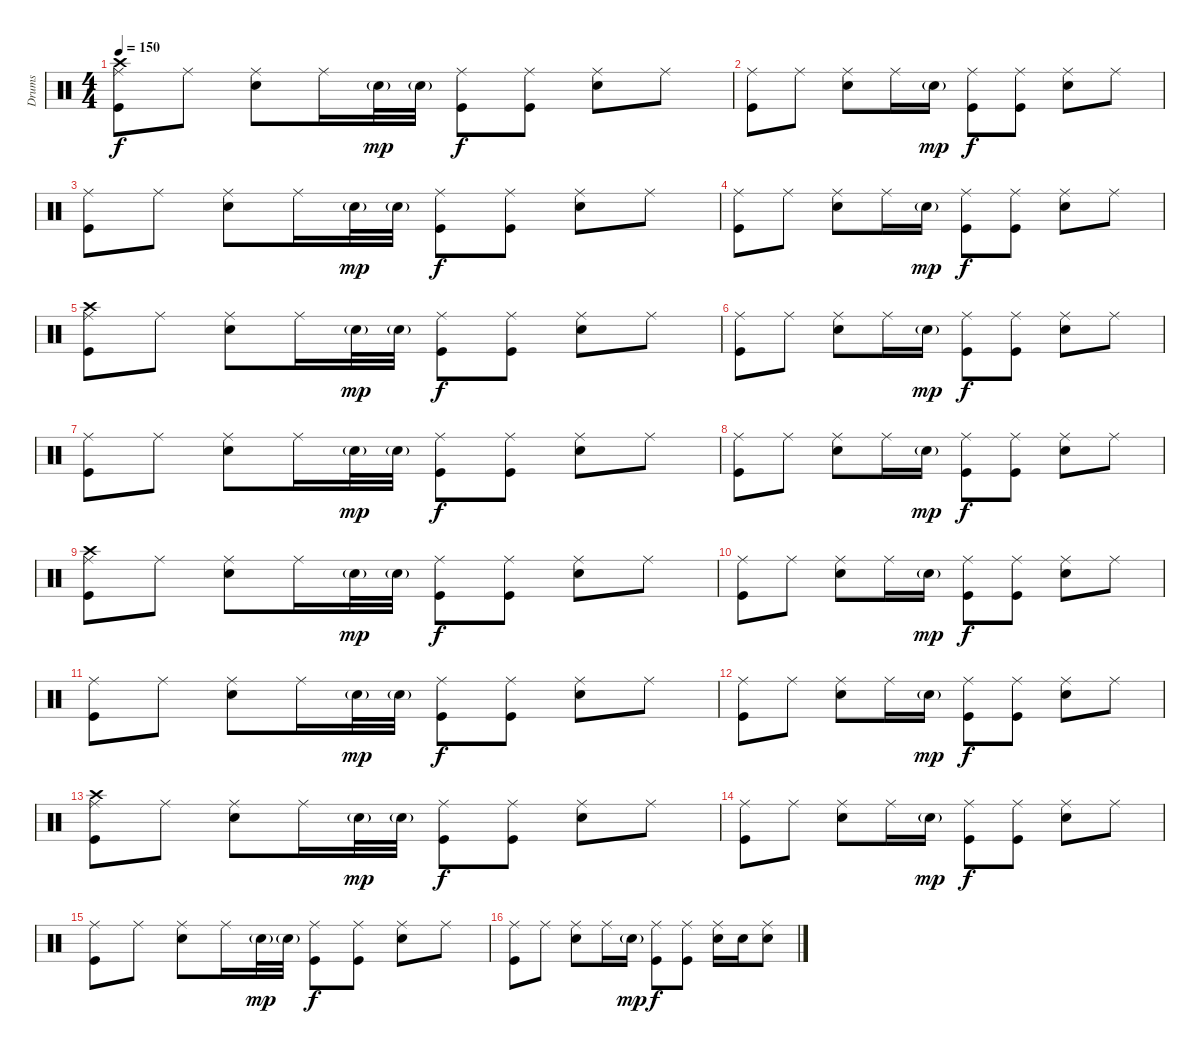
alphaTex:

\track ("Drums" "Drums") {instrument percussion}
\staff {score}
\articulation defaults
\ts (4 4)
\tempo 150
\clef neutral
\ks c
("Crash high (hit)" "Ride (middle)" "Kick (hit)").8{dy f} "Ride (middle)".8 ("Ride (middle)" "Snare (hit) 2").8 "Ride (middle)".16 "Snare (hit) 2"{g}.32{dy mp} "Snare (hit) 2"{g}.32 ("Ride (middle)" "Kick (hit)").8{dy f} ("Ride (middle)" "Kick (hit)").8 ("Ride (middle)" "Snare (hit) 2").8 "Ride (middle)".8 |
("Ride (middle)" "Kick (hit)").8 "Ride (middle)".8 ("Ride (middle)" "Snare (hit) 2").8 "Ride (middle)".16 "Snare (hit) 2"{g}.16{dy mp} ("Ride (middle)" "Kick (hit)").8{dy f} ("Ride (middle)" "Kick (hit)").8 ("Ride (middle)" "Snare (hit) 2").8 "Ride (middle)".8 |
("Ride (middle)" "Kick (hit)").8 "Ride (middle)".8 ("Ride (middle)" "Snare (hit) 2").8 "Ride (middle)".16 "Snare (hit) 2"{g}.32{dy mp} "Snare (hit) 2"{g}.32 ("Ride (middle)" "Kick (hit)").8{dy f} ("Ride (middle)" "Kick (hit)").8 ("Ride (middle)" "Snare (hit) 2").8 "Ride (middle)".8 |
("Ride (middle)" "Kick (hit)").8 "Ride (middle)".8 ("Ride (middle)" "Snare (hit) 2").8 "Ride (middle)".16 "Snare (hit) 2"{g}.16{dy mp} ("Ride (middle)" "Kick (hit)").8{dy f} ("Ride (middle)" "Kick (hit)").8 ("Ride (middle)" "Snare (hit) 2").8 "Ride (middle)".8 |
("Crash high (hit)" "Ride (middle)" "Kick (hit)").8 "Ride (middle)".8 ("Ride (middle)" "Snare (hit) 2").8 "Ride (middle)".16 "Snare (hit) 2"{g}.32{dy mp} "Snare (hit) 2"{g}.32 ("Ride (middle)" "Kick (hit)").8{dy f} ("Ride (middle)" "Kick (hit)").8 ("Ride (middle)" "Snare (hit) 2").8 "Ride (middle)".8 |
("Ride (middle)" "Kick (hit)").8 "Ride (middle)".8 ("Ride (middle)" "Snare (hit) 2").8 "Ride (middle)".16 "Snare (hit) 2"{g}.16{dy mp} ("Ride (middle)" "Kick (hit)").8{dy f} ("Ride (middle)" "Kick (hit)").8 ("Ride (middle)" "Snare (hit) 2").8 "Ride (middle)".8 |
("Ride (middle)" "Kick (hit)").8 "Ride (middle)".8 ("Ride (middle)" "Snare (hit) 2").8 "Ride (middle)".16 "Snare (hit) 2"{g}.32{dy mp} "Snare (hit) 2"{g}.32 ("Ride (middle)" "Kick (hit)").8{dy f} ("Ride (middle)" "Kick (hit)").8 ("Ride (middle)" "Snare (hit) 2").8 "Ride (middle)".8 |
("Ride (middle)" "Kick (hit)").8 "Ride (middle)".8 ("Ride (middle)" "Snare (hit) 2").8 "Ride (middle)".16 "Snare (hit) 2"{g}.16{dy mp} ("Ride (middle)" "Kick (hit)").8{dy f} ("Ride (middle)" "Kick (hit)").8 ("Ride (middle)" "Snare (hit) 2").8 "Ride (middle)".8 |
("Crash high (hit)" "Ride (middle)" "Kick (hit)").8 "Ride (middle)".8 ("Ride (middle)" "Snare (hit) 2").8 "Ride (middle)".16 "Snare (hit) 2"{g}.32{dy mp} "Snare (hit) 2"{g}.32 ("Ride (middle)" "Kick (hit)").8{dy f} ("Ride (middle)" "Kick (hit)").8 ("Ride (middle)" "Snare (hit) 2").8 "Ride (middle)".8 |
("Ride (middle)" "Kick (hit)").8 "Ride (middle)".8 ("Ride (middle)" "Snare (hit) 2").8 "Ride (middle)".16 "Snare (hit) 2"{g}.16{dy mp} ("Ride (middle)" "Kick (hit)").8{dy f} ("Ride (middle)" "Kick (hit)").8 ("Ride (middle)" "Snare (hit) 2").8 "Ride (middle)".8 |
("Ride (middle)" "Kick (hit)").8 "Ride (middle)".8 ("Ride (middle)" "Snare (hit) 2").8 "Ride (middle)".16 "Snare (hit) 2"{g}.32{dy mp} "Snare (hit) 2"{g}.32 ("Ride (middle)" "Kick (hit)").8{dy f} ("Ride (middle)" "Kick (hit)").8 ("Ride (middle)" "Snare (hit) 2").8 "Ride (middle)".8 |
("Ride (middle)" "Kick (hit)").8 "Ride (middle)".8 ("Ride (middle)" "Snare (hit) 2").8 "Ride (middle)".16 "Snare (hit) 2"{g}.16{dy mp} ("Ride (middle)" "Kick (hit)").8{dy f} ("Ride (middle)" "Kick (hit)").8 ("Ride (middle)" "Snare (hit) 2").8 "Ride (middle)".8 |
("Crash high (hit)" "Ride (middle)" "Kick (hit)").8 "Ride (middle)".8 ("Ride (middle)" "Snare (hit) 2").8 "Ride (middle)".16 "Snare (hit) 2"{g}.32{dy mp} "Snare (hit) 2"{g}.32 ("Ride (middle)" "Kick (hit)").8{dy f} ("Ride (middle)" "Kick (hit)").8 ("Ride (middle)" "Snare (hit) 2").8 "Ride (middle)".8 |
("Ride (middle)" "Kick (hit)").8 "Ride (middle)".8 ("Ride (middle)" "Snare (hit) 2").8 "Ride (middle)".16 "Snare (hit) 2"{g}.16{dy mp} ("Ride (middle)" "Kick (hit)").8{dy f} ("Ride (middle)" "Kick (hit)").8 ("Ride (middle)" "Snare (hit) 2").8 "Ride (middle)".8 |
("Ride (middle)" "Kick (hit)").8 "Ride (middle)".8 ("Ride (middle)" "Snare (hit) 2").8 "Ride (middle)".16 "Snare (hit) 2"{g}.32{dy mp} "Snare (hit) 2"{g}.32 ("Ride (middle)" "Kick (hit)").8{dy f} ("Ride (middle)" "Kick (hit)").8 ("Ride (middle)" "Snare (hit) 2").8 "Ride (middle)".8 |
("Ride (middle)" "Kick (hit)").8 "Ride (middle)".8 ("Ride (middle)" "Snare (hit) 2").8 "Ride (middle)".16 "Snare (hit) 2"{g}.16{dy mp} ("Ride (middle)" "Kick (hit)").8{dy f} ("Ride (middle)" "Kick (hit)").8 ("Ride (middle)" "Snare (hit) 2").16 "Snare (hit) 2".16 ("Ride (middle)" "Snare (hit) 2").8
